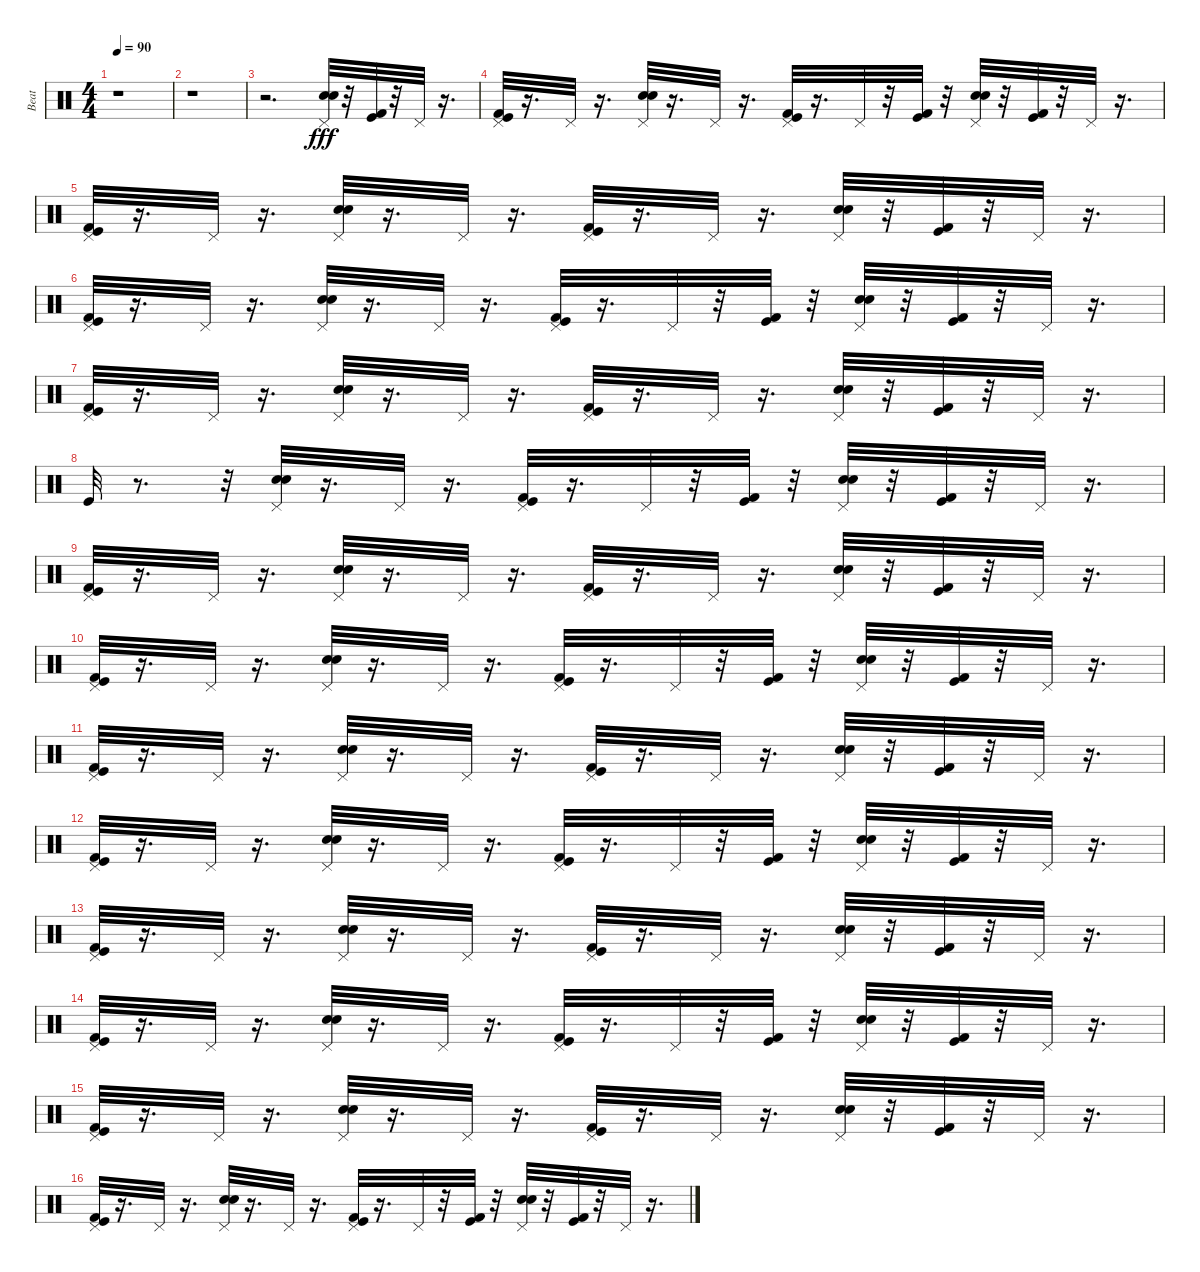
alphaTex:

\track ("Beat" "Beat") {instrument percussion}
\staff {score}
\articulation defaults
\ts (4 4)
\tempo 90
\clef neutral
\ks c
r.1{dy fff} |
r.1 |
r.2{d} ("Electric Snare (hit)" "Snare (hit) 2" "Pedal Hi-Hat (hit)").32 r.32 ("Kick (hit) 2" "Kick (hit)").32 r.32 "Pedal Hi-Hat (hit)".32 r.16{d} |
("Kick (hit) 2" "Kick (hit)" "Pedal Hi-Hat (hit)").32 r.16{d} "Pedal Hi-Hat (hit)".32 r.16{d} ("Electric Snare (hit)" "Snare (hit) 2" "Pedal Hi-Hat (hit)").32 r.16{d} "Pedal Hi-Hat (hit)".32 r.16{d} ("Kick (hit) 2" "Kick (hit)" "Pedal Hi-Hat (hit)").32 r.16{d} "Pedal Hi-Hat (hit)".32 r.32 ("Kick (hit) 2" "Kick (hit)").32 r.32 ("Electric Snare (hit)" "Snare (hit) 2" "Pedal Hi-Hat (hit)").32 r.32 ("Kick (hit) 2" "Kick (hit)").32 r.32 "Pedal Hi-Hat (hit)".32 r.16{d} |
("Kick (hit) 2" "Kick (hit)" "Pedal Hi-Hat (hit)").32 r.16{d} "Pedal Hi-Hat (hit)".32 r.16{d} ("Electric Snare (hit)" "Snare (hit) 2" "Pedal Hi-Hat (hit)").32 r.16{d} "Pedal Hi-Hat (hit)".32 r.16{d} ("Kick (hit) 2" "Kick (hit)" "Pedal Hi-Hat (hit)").32 r.16{d} "Pedal Hi-Hat (hit)".32 r.16{d} ("Electric Snare (hit)" "Snare (hit) 2" "Pedal Hi-Hat (hit)").32 r.32 ("Kick (hit) 2" "Kick (hit)").32 r.32 "Pedal Hi-Hat (hit)".32 r.16{d} |
("Kick (hit) 2" "Kick (hit)" "Pedal Hi-Hat (hit)").32 r.16{d} "Pedal Hi-Hat (hit)".32 r.16{d} ("Electric Snare (hit)" "Snare (hit) 2" "Pedal Hi-Hat (hit)").32 r.16{d} "Pedal Hi-Hat (hit)".32 r.16{d} ("Kick (hit) 2" "Kick (hit)" "Pedal Hi-Hat (hit)").32 r.16{d} "Pedal Hi-Hat (hit)".32 r.32 ("Kick (hit) 2" "Kick (hit)").32 r.32 ("Electric Snare (hit)" "Snare (hit) 2" "Pedal Hi-Hat (hit)").32 r.32 ("Kick (hit) 2" "Kick (hit)").32 r.32 "Pedal Hi-Hat (hit)".32 r.16{d} |
("Kick (hit) 2" "Kick (hit)" "Pedal Hi-Hat (hit)").32 r.16{d} "Pedal Hi-Hat (hit)".32 r.16{d} ("Electric Snare (hit)" "Snare (hit) 2" "Pedal Hi-Hat (hit)").32 r.16{d} "Pedal Hi-Hat (hit)".32 r.16{d} ("Kick (hit) 2" "Kick (hit)" "Pedal Hi-Hat (hit)").32 r.16{d} "Pedal Hi-Hat (hit)".32 r.16{d} ("Electric Snare (hit)" "Snare (hit) 2" "Pedal Hi-Hat (hit)").32 r.32 ("Kick (hit) 2" "Kick (hit)").32 r.32 "Pedal Hi-Hat (hit)".32 r.16{d} |
"Kick (hit)".32 r.8{d} r.32 ("Pedal Hi-Hat (hit)" "Electric Snare (hit)" "Snare (hit) 2").32 r.16{d} "Pedal Hi-Hat (hit)".32 r.16{d} ("Kick (hit) 2" "Kick (hit)" "Pedal Hi-Hat (hit)").32 r.16{d} "Pedal Hi-Hat (hit)".32 r.32 ("Kick (hit) 2" "Kick (hit)").32 r.32 ("Electric Snare (hit)" "Snare (hit) 2" "Pedal Hi-Hat (hit)").32 r.32 ("Kick (hit) 2" "Kick (hit)").32 r.32 "Pedal Hi-Hat (hit)".32 r.16{d} |
("Kick (hit) 2" "Kick (hit)" "Pedal Hi-Hat (hit)").32 r.16{d} "Pedal Hi-Hat (hit)".32 r.16{d} ("Electric Snare (hit)" "Snare (hit) 2" "Pedal Hi-Hat (hit)").32 r.16{d} "Pedal Hi-Hat (hit)".32 r.16{d} ("Kick (hit) 2" "Kick (hit)" "Pedal Hi-Hat (hit)").32 r.16{d} "Pedal Hi-Hat (hit)".32 r.16{d} ("Electric Snare (hit)" "Snare (hit) 2" "Pedal Hi-Hat (hit)").32 r.32 ("Kick (hit) 2" "Kick (hit)").32 r.32 "Pedal Hi-Hat (hit)".32 r.16{d} |
("Kick (hit) 2" "Kick (hit)" "Pedal Hi-Hat (hit)").32 r.16{d} "Pedal Hi-Hat (hit)".32 r.16{d} ("Electric Snare (hit)" "Snare (hit) 2" "Pedal Hi-Hat (hit)").32 r.16{d} "Pedal Hi-Hat (hit)".32 r.16{d} ("Kick (hit) 2" "Kick (hit)" "Pedal Hi-Hat (hit)").32 r.16{d} "Pedal Hi-Hat (hit)".32 r.32 ("Kick (hit) 2" "Kick (hit)").32 r.32 ("Electric Snare (hit)" "Snare (hit) 2" "Pedal Hi-Hat (hit)").32 r.32 ("Kick (hit) 2" "Kick (hit)").32 r.32 "Pedal Hi-Hat (hit)".32 r.16{d} |
("Kick (hit) 2" "Kick (hit)" "Pedal Hi-Hat (hit)").32 r.16{d} "Pedal Hi-Hat (hit)".32 r.16{d} ("Electric Snare (hit)" "Snare (hit) 2" "Pedal Hi-Hat (hit)").32 r.16{d} "Pedal Hi-Hat (hit)".32 r.16{d} ("Kick (hit) 2" "Kick (hit)" "Pedal Hi-Hat (hit)").32 r.16{d} "Pedal Hi-Hat (hit)".32 r.16{d} ("Electric Snare (hit)" "Snare (hit) 2" "Pedal Hi-Hat (hit)").32 r.32 ("Kick (hit) 2" "Kick (hit)").32 r.32 "Pedal Hi-Hat (hit)".32 r.16{d} |
("Kick (hit) 2" "Kick (hit)" "Pedal Hi-Hat (hit)").32 r.16{d} "Pedal Hi-Hat (hit)".32 r.16{d} ("Electric Snare (hit)" "Snare (hit) 2" "Pedal Hi-Hat (hit)").32 r.16{d} "Pedal Hi-Hat (hit)".32 r.16{d} ("Kick (hit) 2" "Kick (hit)" "Pedal Hi-Hat (hit)").32 r.16{d} "Pedal Hi-Hat (hit)".32 r.32 ("Kick (hit) 2" "Kick (hit)").32 r.32 ("Electric Snare (hit)" "Snare (hit) 2" "Pedal Hi-Hat (hit)").32 r.32 ("Kick (hit) 2" "Kick (hit)").32 r.32 "Pedal Hi-Hat (hit)".32 r.16{d} |
("Kick (hit) 2" "Kick (hit)" "Pedal Hi-Hat (hit)").32 r.16{d} "Pedal Hi-Hat (hit)".32 r.16{d} ("Electric Snare (hit)" "Snare (hit) 2" "Pedal Hi-Hat (hit)").32 r.16{d} "Pedal Hi-Hat (hit)".32 r.16{d} ("Kick (hit) 2" "Kick (hit)" "Pedal Hi-Hat (hit)").32 r.16{d} "Pedal Hi-Hat (hit)".32 r.16{d} ("Electric Snare (hit)" "Snare (hit) 2" "Pedal Hi-Hat (hit)").32 r.32 ("Kick (hit) 2" "Kick (hit)").32 r.32 "Pedal Hi-Hat (hit)".32 r.16{d} |
("Kick (hit) 2" "Kick (hit)" "Pedal Hi-Hat (hit)").32 r.16{d} "Pedal Hi-Hat (hit)".32 r.16{d} ("Electric Snare (hit)" "Snare (hit) 2" "Pedal Hi-Hat (hit)").32 r.16{d} "Pedal Hi-Hat (hit)".32 r.16{d} ("Kick (hit) 2" "Kick (hit)" "Pedal Hi-Hat (hit)").32 r.16{d} "Pedal Hi-Hat (hit)".32 r.32 ("Kick (hit) 2" "Kick (hit)").32 r.32 ("Electric Snare (hit)" "Snare (hit) 2" "Pedal Hi-Hat (hit)").32 r.32 ("Kick (hit) 2" "Kick (hit)").32 r.32 "Pedal Hi-Hat (hit)".32 r.16{d} |
("Kick (hit) 2" "Kick (hit)" "Pedal Hi-Hat (hit)").32 r.16{d} "Pedal Hi-Hat (hit)".32 r.16{d} ("Electric Snare (hit)" "Snare (hit) 2" "Pedal Hi-Hat (hit)").32 r.16{d} "Pedal Hi-Hat (hit)".32 r.16{d} ("Kick (hit) 2" "Kick (hit)" "Pedal Hi-Hat (hit)").32 r.16{d} "Pedal Hi-Hat (hit)".32 r.16{d} ("Electric Snare (hit)" "Snare (hit) 2" "Pedal Hi-Hat (hit)").32 r.32 ("Kick (hit) 2" "Kick (hit)").32 r.32 "Pedal Hi-Hat (hit)".32 r.16{d} |
("Kick (hit) 2" "Kick (hit)" "Pedal Hi-Hat (hit)").32 r.16{d} "Pedal Hi-Hat (hit)".32 r.16{d} ("Electric Snare (hit)" "Snare (hit) 2" "Pedal Hi-Hat (hit)").32 r.16{d} "Pedal Hi-Hat (hit)".32 r.16{d} ("Kick (hit) 2" "Kick (hit)" "Pedal Hi-Hat (hit)").32 r.16{d} "Pedal Hi-Hat (hit)".32 r.32 ("Kick (hit) 2" "Kick (hit)").32 r.32 ("Electric Snare (hit)" "Snare (hit) 2" "Pedal Hi-Hat (hit)").32 r.32 ("Kick (hit) 2" "Kick (hit)").32 r.32 "Pedal Hi-Hat (hit)".32 r.16{d}
